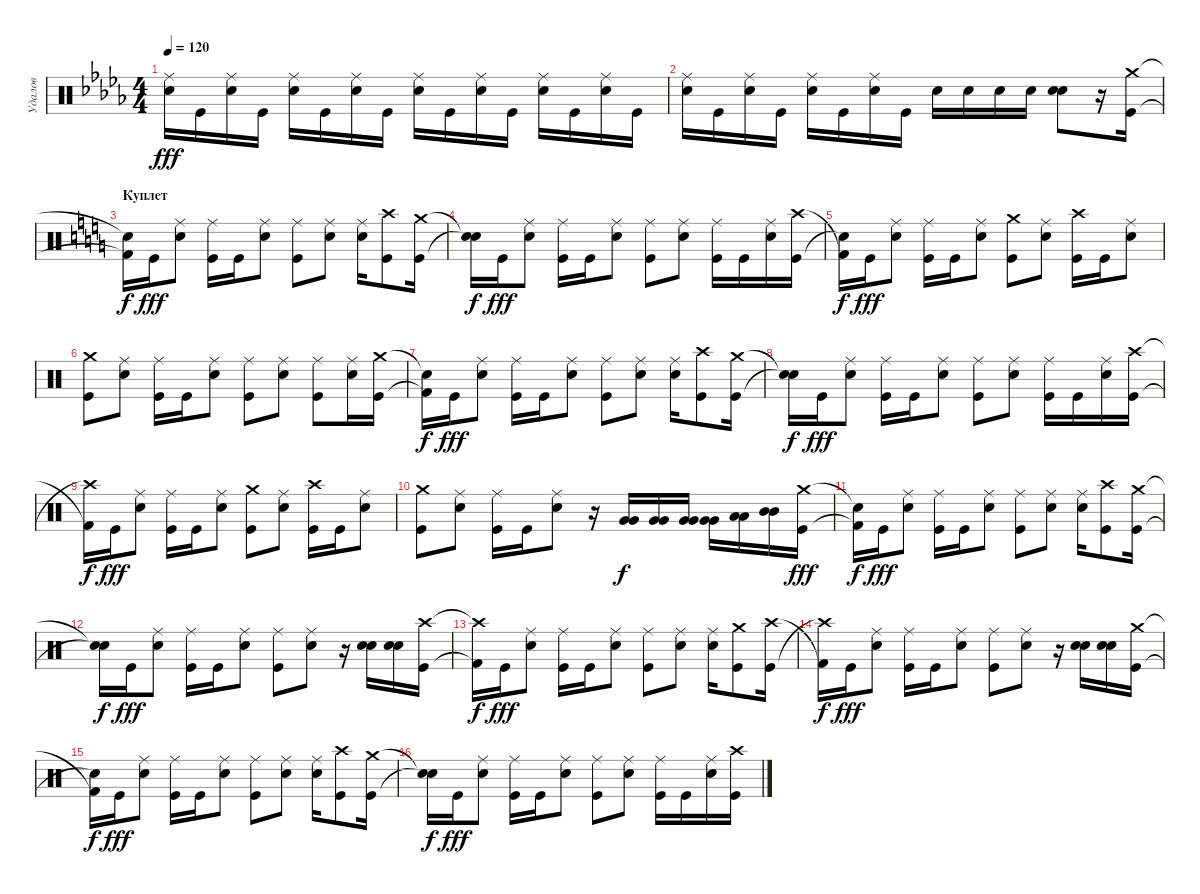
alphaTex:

\track ("Удалов " "Удалов ") {instrument percussion}
\staff {score}
\articulation defaults
\ts (4 4)
\tempo 120
\clef neutral
\ks db
("Electric Snare (hit)" "Ride (middle)").16{dy fff} "Kick (hit)".16 ("Electric Snare (hit)" "Ride (middle)").16 "Kick (hit)".16 ("Electric Snare (hit)" "Ride (middle)").16 "Kick (hit)".16 ("Electric Snare (hit)" "Ride (middle)").16 "Kick (hit)".16 ("Electric Snare (hit)" "Ride (middle)").16 "Kick (hit)".16 ("Electric Snare (hit)" "Ride (middle)").16 "Kick (hit)".16 ("Electric Snare (hit)" "Ride (middle)").16 "Kick (hit)".16 ("Electric Snare (hit)" "Ride (middle)").16 "Kick (hit)".16 |
("Electric Snare (hit)" "Ride (middle)").16 "Kick (hit)".16 ("Electric Snare (hit)" "Ride (middle)").16 "Kick (hit)".16 ("Electric Snare (hit)" "Ride (middle)").16 "Kick (hit)".16 ("Electric Snare (hit)" "Ride (middle)").16 "Kick (hit)".16 "Electric Snare (hit)".16 "Electric Snare (hit)".16 "Electric Snare (hit)".16 "Electric Snare (hit)".16 ("Electric Snare (hit)" "Electric Snare (hit)").8 r.16 ("Kick (hit)" "Crash medium (hit)").16 |
\section ("" "Куплет")
\ks c
("Kick (hit) 2"{t} "Snare (hit)"{t}).16{dy f} "Kick (hit)".16{dy fff} ("Snare (hit) 2" "Ride (middle)").8 ("Kick (hit)" "Ride (middle)").16 "Kick (hit)".16 ("Snare (hit) 2" "Ride (middle)").8 ("Kick (hit)" "Ride (middle)").8 ("Snare (hit) 2" "Ride (middle)").8 ("Snare (hit) 2" "Ride (middle)").16 ("Kick (hit)" "Crash high (hit)").8 ("Kick (hit)" "Crash medium (hit)").16 |
("Snare (hit) 2"{t} "Snare (hit)"{t}).16{dy f} "Kick (hit)".16{dy fff} ("Snare (hit) 2" "Ride (middle)").8 ("Kick (hit)" "Ride (middle)").16 "Kick (hit)".16 ("Snare (hit) 2" "Ride (middle)").8 ("Kick (hit)" "Ride (middle)").8 ("Snare (hit) 2" "Ride (middle)").8 ("Kick (hit)" "Ride (middle)").16 "Kick (hit)".16 ("Snare (hit) 2" "Ride (middle)").16 ("Kick (hit)" "Crash high (hit)").16 |
("Snare (hit)"{t} "Kick (hit) 2"{t}).16{dy f} "Kick (hit)".16{dy fff} ("Snare (hit) 2" "Ride (middle)").8 ("Kick (hit)" "Ride (middle)").16 "Kick (hit)".16 ("Snare (hit) 2" "Ride (middle)").8 ("Kick (hit)" "Crash medium (hit)").8 ("Snare (hit) 2" "Ride (middle)").8 ("Kick (hit)" "Crash high (hit)").16 "Kick (hit)".16 ("Snare (hit) 2" "Ride (middle)").8 |
("Crash medium (hit)" "Kick (hit)").8 ("Ride (middle)" "Snare (hit) 2").8 ("Kick (hit)" "Ride (middle)").16 "Kick (hit)".16 ("Snare (hit) 2" "Ride (middle)").8 ("Kick (hit)" "Ride (middle)").8 ("Ride (middle)" "Snare (hit) 2").8 ("Kick (hit)" "Ride (middle)").8 ("Snare (hit) 2" "Ride (middle)").16 ("Kick (hit)" "Crash medium (hit)").16 |
("Kick (hit) 2"{t} "Snare (hit)"{t}).16{dy f} "Kick (hit)".16{dy fff} ("Snare (hit) 2" "Ride (middle)").8 ("Kick (hit)" "Ride (middle)").16 "Kick (hit)".16 ("Snare (hit) 2" "Ride (middle)").8 ("Kick (hit)" "Ride (middle)").8 ("Snare (hit) 2" "Ride (middle)").8 ("Snare (hit) 2" "Ride (middle)").16 ("Kick (hit)" "Crash high (hit)").8 ("Kick (hit)" "Crash medium (hit)").16 |
("Snare (hit) 2"{t} "Snare (hit)"{t}).16{dy f} "Kick (hit)".16{dy fff} ("Snare (hit) 2" "Ride (middle)").8 ("Kick (hit)" "Ride (middle)").16 "Kick (hit)".16 ("Snare (hit) 2" "Ride (middle)").8 ("Kick (hit)" "Ride (middle)").8 ("Snare (hit) 2" "Ride (middle)").8 ("Kick (hit)" "Ride (middle)").16 "Kick (hit)".16 ("Snare (hit) 2" "Ride (middle)").16 ("Kick (hit)" "Crash high (hit)").16 |
("Crash high (hit)"{t} "Kick (hit) 2"{t}).16{dy f} "Kick (hit)".16{dy fff} ("Snare (hit) 2" "Ride (middle)").8 ("Ride (middle)" "Kick (hit)").16 "Kick (hit)".16 ("Snare (hit) 2" "Ride (middle)").8 ("Kick (hit)" "Crash medium (hit)").8 ("Ride (middle)" "Snare (hit) 2").8 ("Kick (hit)" "Crash high (hit)").16 "Kick (hit)".16 ("Snare (hit) 2" "Ride (middle)").8 |
("Kick (hit)" "Crash medium (hit)").8 ("Snare (hit) 2" "Ride (middle)").8 ("Kick (hit)" "Ride (middle)").16 "Kick (hit)".16 ("Snare (hit) 2" "Ride (middle)").8 r.16 ("Very Low Tom (hit)" "Very Low Tom (hit)").16{dy f} ("Very Low Tom (hit)" "Very Low Tom (hit)").16 ("Very Low Tom (hit)" "Very Low Tom (hit)").16 ("Very Low Tom (hit)" "Very Low Tom (hit)").16 ("Low Tom (hit)" "Low Tom (hit)").16 ("Mid Tom (hit)" "Mid Tom (hit)").16 ("Kick (hit)" "Crash medium (hit)").16{dy fff} |
("Kick (hit) 2"{t} "Snare (hit)"{t}).16{dy f} "Kick (hit)".16{dy fff} ("Snare (hit) 2" "Ride (middle)").8 ("Kick (hit)" "Ride (middle)").16 "Kick (hit)".16 ("Snare (hit) 2" "Ride (middle)").8 ("Kick (hit)" "Ride (middle)").8 ("Snare (hit) 2" "Ride (middle)").8 ("Snare (hit) 2" "Ride (middle)").16 ("Kick (hit)" "Crash high (hit)").8 ("Kick (hit)" "Crash medium (hit)").16 |
("Snare (hit) 2"{t} "Snare (hit)"{t}).16{dy f} "Kick (hit)".16{dy fff} ("Snare (hit) 2" "Ride (middle)").8 ("Kick (hit)" "Ride (middle)").16 "Kick (hit)".16 ("Snare (hit) 2" "Ride (middle)").8 ("Kick (hit)" "Ride (middle)").8 ("Snare (hit) 2" "Ride (middle)").8 r.16 ("Snare (hit) 2" "Snare (hit) 2").16 ("Snare (hit) 2" "Snare (hit) 2").16 ("Crash high (hit)" "Kick (hit)").16 |
("Crash high (hit)"{t} "Kick (hit) 2"{t}).16{dy f} "Kick (hit)".16{dy fff} ("Snare (hit) 2" "Ride (middle)").8 ("Kick (hit)" "Ride (middle)").16 "Kick (hit)".16 ("Snare (hit) 2" "Ride (middle)").8 ("Kick (hit)" "Ride (middle)").8 ("Ride (middle)" "Snare (hit) 2").8 ("Snare (hit) 2" "Ride (middle)").16 ("Kick (hit)" "Crash medium (hit)").8 ("Kick (hit)" "Crash high (hit)").16 |
("Crash high (hit)"{t} "Kick (hit) 2"{t}).16{dy f} "Kick (hit)".16{dy fff} ("Snare (hit) 2" "Ride (middle)").8 ("Kick (hit)" "Ride (middle)").16 "Kick (hit)".16 ("Snare (hit) 2" "Ride (middle)").8 ("Kick (hit)" "Ride (middle)").8 ("Ride (middle)" "Snare (hit) 2").8 r.16 ("Snare (hit) 2" "Snare (hit) 2").16 ("Snare (hit) 2" "Snare (hit) 2").16 ("Crash medium (hit)" "Kick (hit)").16 |
("Kick (hit) 2"{t} "Snare (hit)"{t}).16{dy f} "Kick (hit)".16{dy fff} ("Snare (hit) 2" "Ride (middle)").8 ("Kick (hit)" "Ride (middle)").16 "Kick (hit)".16 ("Snare (hit) 2" "Ride (middle)").8 ("Kick (hit)" "Ride (middle)").8 ("Snare (hit) 2" "Ride (middle)").8 ("Snare (hit) 2" "Ride (middle)").16 ("Kick (hit)" "Crash high (hit)").8 ("Kick (hit)" "Crash medium (hit)").16 |
("Snare (hit) 2"{t} "Snare (hit)"{t}).16{dy f} "Kick (hit)".16{dy fff} ("Snare (hit) 2" "Ride (middle)").8 ("Kick (hit)" "Ride (middle)").16 "Kick (hit)".16 ("Snare (hit) 2" "Ride (middle)").8 ("Kick (hit)" "Ride (middle)").8 ("Snare (hit) 2" "Ride (middle)").8 ("Kick (hit)" "Ride (middle)").16 "Kick (hit)".16 ("Snare (hit) 2" "Ride (middle)").16 ("Crash high (hit)" "Kick (hit)").16
